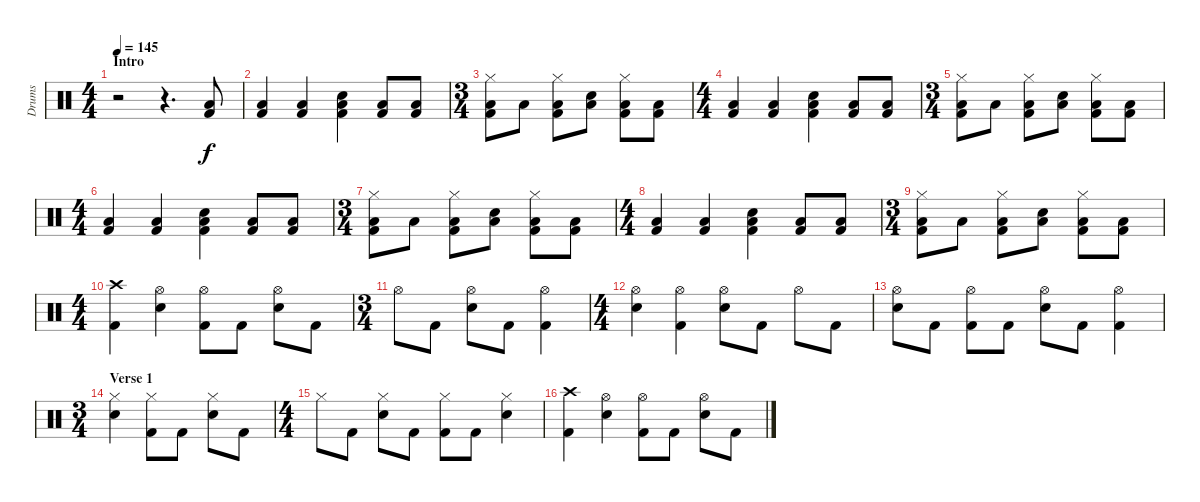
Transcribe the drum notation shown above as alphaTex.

\track ("Drums" "Drums") {instrument percussion}
\staff {score}
\articulation defaults
\ts (4 4)
\section ("" "Intro")
\tempo 145
\clef neutral
\ks c
r.2{dy f} r.4{d} ("Low Floor Tom (hit)" "Kick (hit) 2").8 |
("Low Floor Tom (hit)" "Kick (hit) 2").4 ("Low Floor Tom (hit)" "Kick (hit) 2").4 ("Snare (hit) 2" "Low Floor Tom (hit)" "Kick (hit) 2").4 ("Low Floor Tom (hit)" "Kick (hit) 2").8 ("Low Floor Tom (hit)" "Kick (hit) 2").8 |
\ts (3 4)
("Hi-Hat (closed)" "Low Floor Tom (hit)" "Kick (hit) 2").8 "Low Floor Tom (hit)".8 ("Hi-Hat (closed)" "Low Floor Tom (hit)" "Kick (hit) 2").8 ("Snare (hit) 2" "Low Floor Tom (hit)").8 ("Hi-Hat (closed)" "Low Floor Tom (hit)" "Kick (hit) 2").8 ("Low Floor Tom (hit)" "Kick (hit) 2").8 |
\ts (4 4)
("Low Floor Tom (hit)" "Kick (hit) 2").4 ("Low Floor Tom (hit)" "Kick (hit) 2").4 ("Snare (hit) 2" "Low Floor Tom (hit)" "Kick (hit) 2").4 ("Low Floor Tom (hit)" "Kick (hit) 2").8 ("Low Floor Tom (hit)" "Kick (hit) 2").8 |
\ts (3 4)
("Hi-Hat (closed)" "Low Floor Tom (hit)" "Kick (hit) 2").8 "Low Floor Tom (hit)".8 ("Hi-Hat (closed)" "Low Floor Tom (hit)" "Kick (hit) 2").8 ("Snare (hit) 2" "Low Floor Tom (hit)").8 ("Hi-Hat (closed)" "Low Floor Tom (hit)" "Kick (hit) 2").8 ("Low Floor Tom (hit)" "Kick (hit) 2").8 |
\ts (4 4)
("Low Floor Tom (hit)" "Kick (hit) 2").4 ("Low Floor Tom (hit)" "Kick (hit) 2").4 ("Snare (hit) 2" "Low Floor Tom (hit)" "Kick (hit) 2").4 ("Low Floor Tom (hit)" "Kick (hit) 2").8 ("Low Floor Tom (hit)" "Kick (hit) 2").8 |
\ts (3 4)
("Hi-Hat (closed)" "Low Floor Tom (hit)" "Kick (hit) 2").8 "Low Floor Tom (hit)".8 ("Hi-Hat (closed)" "Low Floor Tom (hit)" "Kick (hit) 2").8 ("Snare (hit) 2" "Low Floor Tom (hit)").8 ("Hi-Hat (closed)" "Low Floor Tom (hit)" "Kick (hit) 2").8 ("Low Floor Tom (hit)" "Kick (hit) 2").8 |
\ts (4 4)
("Low Floor Tom (hit)" "Kick (hit) 2").4 ("Low Floor Tom (hit)" "Kick (hit) 2").4 ("Snare (hit) 2" "Low Floor Tom (hit)" "Kick (hit) 2").4 ("Low Floor Tom (hit)" "Kick (hit) 2").8 ("Low Floor Tom (hit)" "Kick (hit) 2").8 |
\ts (3 4)
("Hi-Hat (closed)" "Low Floor Tom (hit)" "Kick (hit) 2").8 "Low Floor Tom (hit)".8 ("Hi-Hat (closed)" "Low Floor Tom (hit)" "Kick (hit) 2").8 ("Snare (hit) 2" "Low Floor Tom (hit)").8 ("Hi-Hat (closed)" "Low Floor Tom (hit)" "Kick (hit) 2").8 ("Low Floor Tom (hit)" "Kick (hit) 2").8 |
\ts (4 4)
("Crash high (hit)" "Kick (hit) 2").4 ("Hi-Hat (open)" "Snare (hit) 2").4 ("Hi-Hat (open)" "Kick (hit) 2").8 "Kick (hit) 2".8 ("Hi-Hat (open)" "Snare (hit) 2").8 "Kick (hit) 2".8 |
\ts (3 4)
"Hi-Hat (open)".8 "Kick (hit) 2".8 ("Hi-Hat (open)" "Snare (hit) 2").8 "Kick (hit) 2".8 ("Hi-Hat (open)" "Kick (hit) 2").4 |
\ts (4 4)
("Hi-Hat (open)" "Snare (hit) 2").4 ("Hi-Hat (open)" "Kick (hit) 2").4 ("Hi-Hat (open)" "Snare (hit) 2").8 "Kick (hit) 2".8 "Hi-Hat (open)".8 "Kick (hit) 2".8 |
("Hi-Hat (open)" "Snare (hit) 2").8 "Kick (hit) 2".8 ("Hi-Hat (open)" "Kick (hit) 2").8 "Kick (hit) 2".8 ("Hi-Hat (open)" "Snare (hit) 2").8 "Kick (hit) 2".8 ("Hi-Hat (open)" "Kick (hit) 2").4 |
\ts (3 4)
\section ("" "Verse 1")
("Hi-Hat (closed)" "Snare (hit) 2").4 ("Hi-Hat (closed)" "Kick (hit) 2").8 "Kick (hit) 2".8 ("Hi-Hat (closed)" "Snare (hit) 2").8 "Kick (hit) 2".8 |
\ts (4 4)
"Hi-Hat (closed)".8 "Kick (hit) 2".8 ("Hi-Hat (closed)" "Snare (hit) 2").8 "Kick (hit) 2".8 ("Hi-Hat (closed)" "Kick (hit) 2").8 "Kick (hit) 2".8 ("Hi-Hat (closed)" "Snare (hit) 2").4 |
("Crash high (hit)" "Kick (hit) 2").4 ("Hi-Hat (open)" "Snare (hit) 2").4 ("Hi-Hat (open)" "Kick (hit) 2").8 "Kick (hit) 2".8 ("Hi-Hat (open)" "Snare (hit) 2").8 "Kick (hit) 2".8
